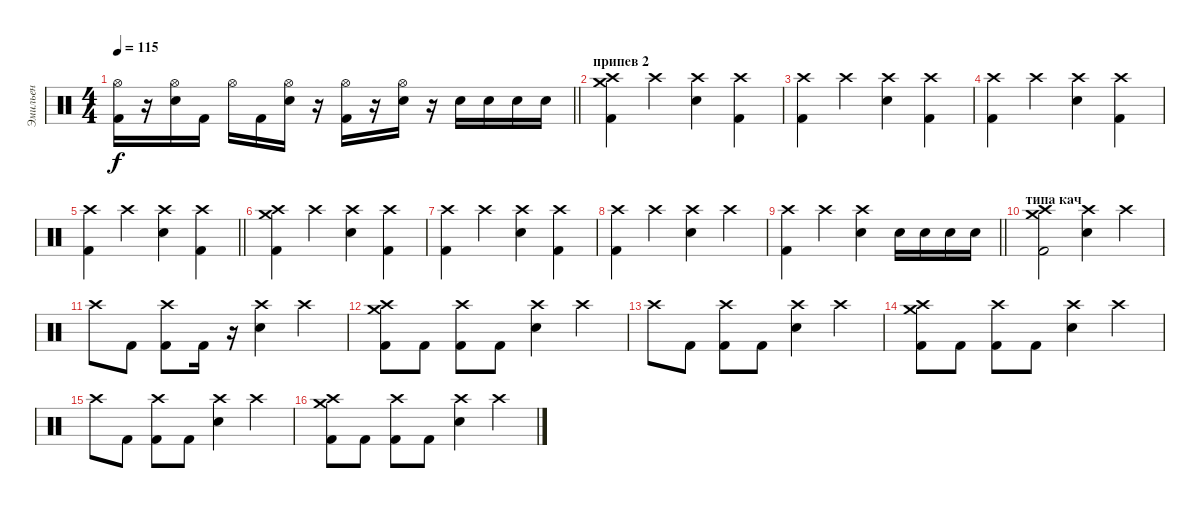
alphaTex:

\track ("Эмильен" "Эмильен") {instrument percussion}
\staff {score}
\articulation defaults
\ts (4 4)
\tempo 115
\clef neutral
\barLineRight lightlight
\ks c
("Hi-Hat (open)" "Kick (hit) 2").16{dy f} r.16 ("Hi-Hat (open)" "Snare (hit) 2").16 "Kick (hit) 2".16 "Hi-Hat (open)".16 "Kick (hit) 2".16 ("Hi-Hat (open)" "Snare (hit) 2").16 r.16 ("Hi-Hat (open)" "Kick (hit) 2").16 r.16 ("Hi-Hat (open)" "Snare (hit) 2").16 r.16 "Snare (hit) 2".16 "Snare (hit) 2".16 "Snare (hit) 2".16 "Snare (hit) 2".16 |
\section ("" "припев 2")
("Crash high (hit)" "Crash medium (hit)" "Kick (hit) 2").4 "Crash high (hit)".4 ("Crash high (hit)" "Snare (hit) 2").4 ("Crash high (hit)" "Kick (hit) 2").4 |
("Crash high (hit)" "Kick (hit) 2").4 "Crash high (hit)".4 ("Crash high (hit)" "Snare (hit) 2").4 ("Crash high (hit)" "Kick (hit) 2").4 |
("Crash high (hit)" "Kick (hit) 2").4 "Crash high (hit)".4 ("Crash high (hit)" "Snare (hit) 2").4 ("Crash high (hit)" "Kick (hit) 2").4 |
\barLineRight lightlight
("Crash high (hit)" "Kick (hit) 2").4 "Crash high (hit)".4 ("Crash high (hit)" "Snare (hit) 2").4 ("Crash high (hit)" "Kick (hit) 2").4 |
("Crash high (hit)" "Crash medium (hit)" "Kick (hit) 2").4 "Crash high (hit)".4 ("Crash high (hit)" "Snare (hit) 2").4 ("Crash high (hit)" "Kick (hit) 2").4 |
("Crash high (hit)" "Kick (hit) 2").4 "Crash high (hit)".4 ("Crash high (hit)" "Snare (hit) 2").4 ("Crash high (hit)" "Kick (hit) 2").4 |
("Crash high (hit)" "Kick (hit) 2").4 "Crash high (hit)".4 ("Crash high (hit)" "Snare (hit) 2").4 "Crash high (hit)".4 |
\barLineRight lightlight
("Crash high (hit)" "Kick (hit) 2").4 "Crash high (hit)".4 ("Crash high (hit)" "Snare (hit) 2").4 "Snare (hit) 2".16 "Snare (hit) 2".16 "Snare (hit) 2".16 "Snare (hit) 2".16 |
\section ("" "типа кач ")
("Crash high (hit)" "Crash medium (hit)" "Kick (hit) 2").2 ("Crash high (hit)" "Snare (hit) 2").4 "Crash high (hit)".4 |
"Crash high (hit)".8 "Kick (hit) 2".8 ("Crash high (hit)" "Kick (hit) 2").8 "Kick (hit) 2".16 r.16 ("Crash high (hit)" "Snare (hit) 2").4 "Crash high (hit)".4 |
("Crash high (hit)" "Crash medium (hit)" "Kick (hit) 2").8 "Kick (hit) 2".8 ("Crash high (hit)" "Kick (hit) 2").8 "Kick (hit) 2".8 ("Crash high (hit)" "Snare (hit) 2").4 "Crash high (hit)".4 |
"Crash high (hit)".8 "Kick (hit) 2".8 ("Crash high (hit)" "Kick (hit) 2").8 "Kick (hit) 2".8 ("Crash high (hit)" "Snare (hit) 2").4 "Crash high (hit)".4 |
("Crash high (hit)" "Crash medium (hit)" "Kick (hit) 2").8 "Kick (hit) 2".8 ("Crash high (hit)" "Kick (hit) 2").8 "Kick (hit) 2".8 ("Crash high (hit)" "Snare (hit) 2").4 "Crash high (hit)".4 |
"Crash high (hit)".8 "Kick (hit) 2".8 ("Crash high (hit)" "Kick (hit) 2").8 "Kick (hit) 2".8 ("Crash high (hit)" "Snare (hit) 2").4 "Crash high (hit)".4 |
("Crash high (hit)" "Crash medium (hit)" "Kick (hit) 2").8 "Kick (hit) 2".8 ("Crash high (hit)" "Kick (hit) 2").8 "Kick (hit) 2".8 ("Crash high (hit)" "Snare (hit) 2").4 "Crash high (hit)".4
